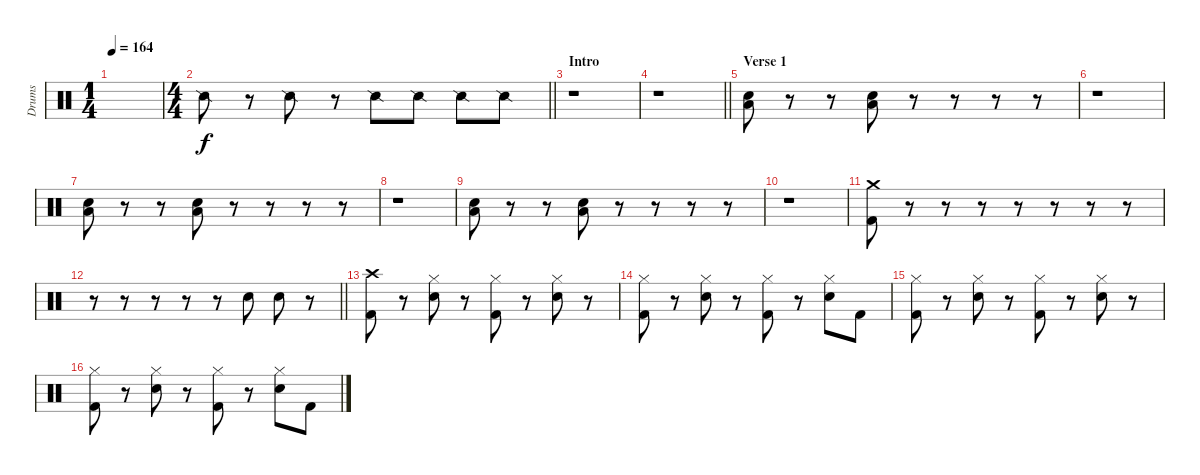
\track ("Drums" "Drums") {instrument percussion}
\staff {score}
\articulation defaults
\ts (1 4)
\tempo 164
\clef neutral
\ks c
|
\ts (4 4)
\barLineRight lightlight "Snare (side stick) 2".8
r.8 "Snare (side stick) 2".8 r.8 "Snare (side stick) 2".8 "Snare (side stick) 2".8 "Snare (side stick) 2".8 "Snare (side stick) 2".8 |
\section ("" "Intro")
r.1 |
\barLineRight lightlight
r.1 |
\section ("" "Verse 1")
("Snare (hit) 2" "Low Floor Tom (hit)").8 r.8 r.8 ("Snare (hit) 2" "Low Floor Tom (hit)").8 r.8 r.8 r.8 r.8 |
r.1 |
("Snare (hit) 2" "Low Floor Tom (hit)").8 r.8 r.8 ("Snare (hit) 2" "Low Floor Tom (hit)").8 r.8 r.8 r.8 r.8 |
r.1 |
("Snare (hit) 2" "Low Floor Tom (hit)").8 r.8 r.8 ("Snare (hit) 2" "Low Floor Tom (hit)").8 r.8 r.8 r.8 r.8 |
r.1 |
("Crash medium (hit)" "Kick (hit) 2").8 r.8 r.8 r.8 r.8 r.8 r.8 r.8 |
\barLineRight lightlight
r.8 r.8 r.8 r.8 r.8 "Snare (hit) 2".8 "Snare (hit) 2".8 r.8 |
("Crash high (hit)" "Kick (hit) 2").8 r.8 ("Hi-Hat (closed)" "Snare (hit) 2").8 r.8 ("Hi-Hat (closed)" "Kick (hit) 2").8 r.8 ("Hi-Hat (closed)" "Snare (hit) 2").8 r.8 |
("Hi-Hat (closed)" "Kick (hit) 2").8 r.8 ("Hi-Hat (closed)" "Snare (hit) 2").8 r.8 ("Hi-Hat (closed)" "Kick (hit) 2").8 r.8 ("Hi-Hat (closed)" "Snare (hit) 2").8 "Kick (hit) 2".8 |
("Hi-Hat (closed)" "Kick (hit) 2").8 r.8 ("Hi-Hat (closed)" "Snare (hit) 2").8 r.8 ("Hi-Hat (closed)" "Kick (hit) 2").8 r.8 ("Hi-Hat (closed)" "Snare (hit) 2").8 r.8 |
("Hi-Hat (closed)" "Kick (hit) 2").8 r.8 ("Hi-Hat (closed)" "Snare (hit) 2").8 r.8 ("Hi-Hat (closed)" "Kick (hit) 2").8 r.8 ("Hi-Hat (closed)" "Snare (hit) 2").8 "Kick (hit) 2".8
